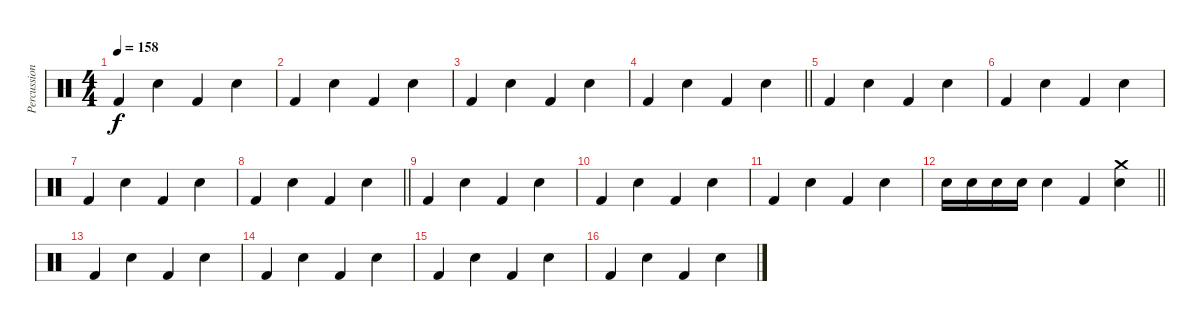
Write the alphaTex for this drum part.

\track ("Percussions" "Percussion") {instrument percussion}
\staff {score}
\articulation defaults
\ts (4 4)
\tempo 158
\clef neutral
\ks c "Kick (hit) 2".4{dy f volume 16} "Electric Snare (hit)".4 "Kick (hit) 2".4 "Electric Snare (hit)".4
|
"Kick (hit) 2".4 "Electric Snare (hit)".4 "Kick (hit) 2".4 "Electric Snare (hit)".4 |
"Kick (hit) 2".4{volume 16} "Electric Snare (hit)".4 "Kick (hit) 2".4 "Electric Snare (hit)".4 |
\barLineRight lightlight "Kick (hit) 2".4 "Electric Snare (hit)".4 "Kick (hit) 2".4 "Electric Snare (hit)".4
|
"Kick (hit) 2".4{volume 16} "Electric Snare (hit)".4 "Kick (hit) 2".4 "Electric Snare (hit)".4 |
"Kick (hit) 2".4 "Electric Snare (hit)".4 "Kick (hit) 2".4 "Electric Snare (hit)".4 |
"Kick (hit) 2".4{volume 16} "Electric Snare (hit)".4 "Kick (hit) 2".4 "Electric Snare (hit)".4 |
\barLineRight lightlight "Kick (hit) 2".4 "Electric Snare (hit)".4 "Kick (hit) 2".4 "Electric Snare (hit)".4
|
"Kick (hit) 2".4{volume 16} "Electric Snare (hit)".4 "Kick (hit) 2".4 "Electric Snare (hit)".4 |
"Kick (hit) 2".4 "Electric Snare (hit)".4 "Kick (hit) 2".4 "Electric Snare (hit)".4 |
"Kick (hit) 2".4{volume 16} "Electric Snare (hit)".4 "Kick (hit) 2".4 "Electric Snare (hit)".4 |
\barLineRight lightlight "Electric Snare (hit)".16 "Electric Snare (hit)".16 "Electric Snare (hit)".16 "Electric Snare (hit)".16 "Electric Snare (hit)".4 "Kick (hit) 2".4
("Crash medium (hit)" "Electric Snare (hit)").4 |
"Kick (hit) 2".4{volume 16} "Electric Snare (hit)".4 "Kick (hit) 2".4 "Electric Snare (hit)".4 |
"Kick (hit) 2".4 "Electric Snare (hit)".4 "Kick (hit) 2".4 "Electric Snare (hit)".4 |
"Kick (hit) 2".4{volume 16} "Electric Snare (hit)".4 "Kick (hit) 2".4 "Electric Snare (hit)".4 |
"Kick (hit) 2".4 "Electric Snare (hit)".4 "Kick (hit) 2".4 "Electric Snare (hit)".4
